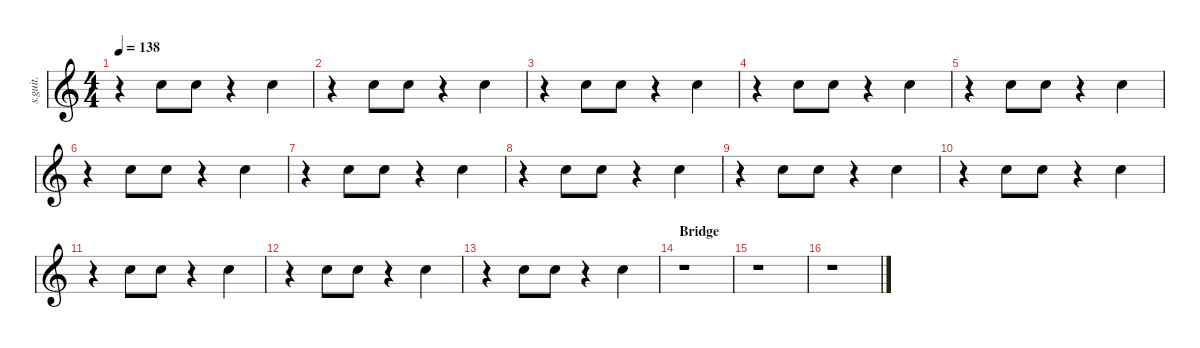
\defaultSystemsLayout 4
\hideDynamics
\bracketExtendMode nobrackets
\track ("Hand Claps" "s.guit.") {instrument percussion}
\staff {score}
\articulation defaults
\ts (4 4)
\tempo 138
\clef g2
\ks c
r.4{dy fff} "Hand Clap (hit)".8 "Hand Clap (hit)".8 r.4 "Hand Clap (hit)".4 |
r.4 "Hand Clap (hit)".8 "Hand Clap (hit)".8 r.4 "Hand Clap (hit)".4 |
r.4 "Hand Clap (hit)".8 "Hand Clap (hit)".8 r.4 "Hand Clap (hit)".4 |
r.4 "Hand Clap (hit)".8 "Hand Clap (hit)".8 r.4 "Hand Clap (hit)".4 |
r.4 "Hand Clap (hit)".8 "Hand Clap (hit)".8 r.4 "Hand Clap (hit)".4 |
r.4 "Hand Clap (hit)".8 "Hand Clap (hit)".8 r.4 "Hand Clap (hit)".4 |
r.4 "Hand Clap (hit)".8 "Hand Clap (hit)".8 r.4 "Hand Clap (hit)".4 |
r.4 "Hand Clap (hit)".8 "Hand Clap (hit)".8 r.4 "Hand Clap (hit)".4 |
r.4 "Hand Clap (hit)".8 "Hand Clap (hit)".8 r.4 "Hand Clap (hit)".4 |
r.4 "Hand Clap (hit)".8 "Hand Clap (hit)".8 r.4 "Hand Clap (hit)".4 |
r.4 "Hand Clap (hit)".8 "Hand Clap (hit)".8 r.4 "Hand Clap (hit)".4 |
r.4 "Hand Clap (hit)".8 "Hand Clap (hit)".8 r.4 "Hand Clap (hit)".4 |
r.4 "Hand Clap (hit)".8 "Hand Clap (hit)".8 r.4 "Hand Clap (hit)".4 |
\section ("" "Bridge")
r.1 |
r.1 |
r.1
